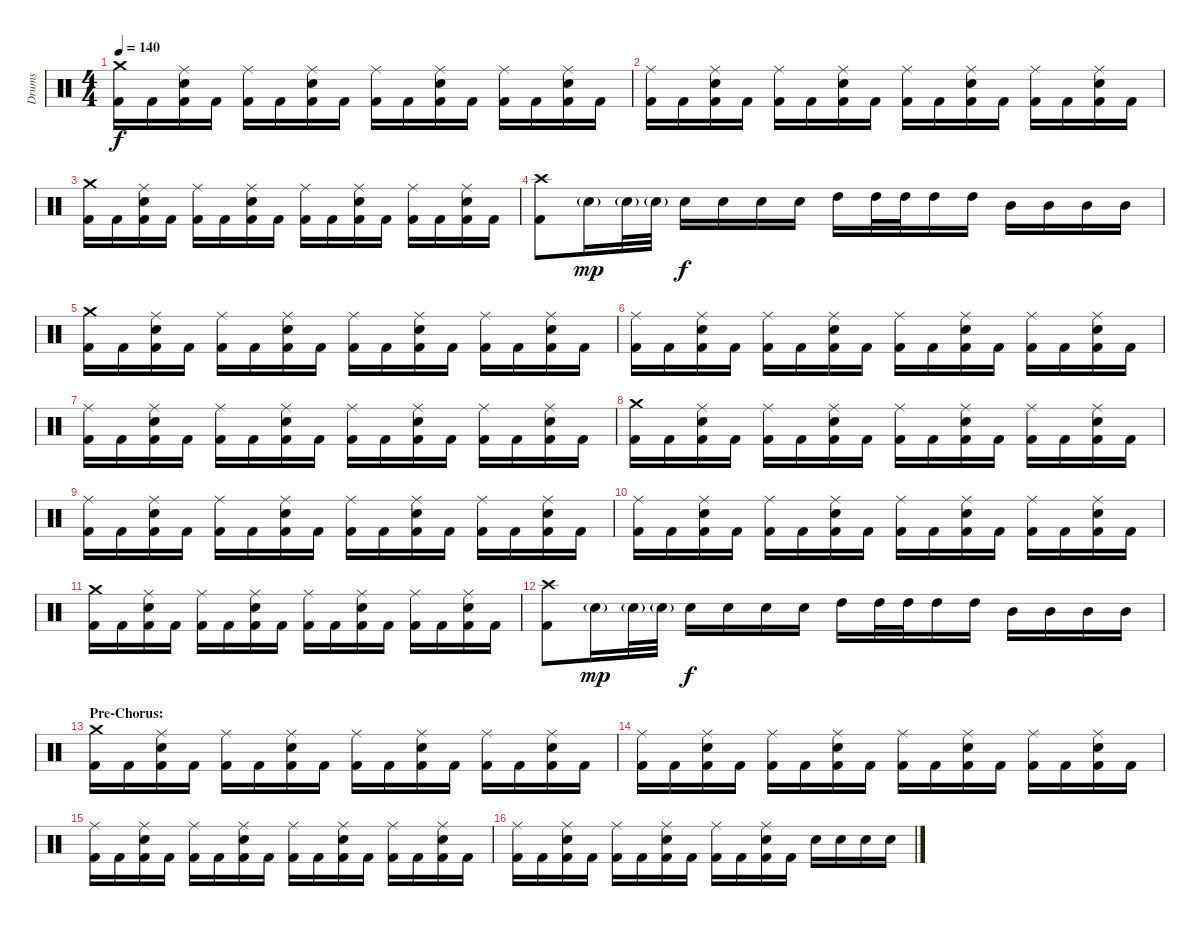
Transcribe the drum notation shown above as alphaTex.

\track ("Drums" "Drums") {instrument percussion}
\staff {score}
\articulation defaults
\ts (4 4)
\tempo 140
\clef neutral
\ks c
("Crash medium (hit)" "Kick (hit) 2").16{dy f} "Kick (hit) 2".16 ("Ride (middle)" "Snare (hit) 2" "Kick (hit) 2").16 "Kick (hit) 2".16 ("Ride (middle)" "Kick (hit) 2").16 "Kick (hit) 2".16 ("Ride (middle)" "Snare (hit) 2" "Kick (hit) 2").16 "Kick (hit) 2".16 ("Ride (middle)" "Kick (hit) 2").16 "Kick (hit) 2".16 ("Ride (middle)" "Snare (hit) 2" "Kick (hit) 2").16 "Kick (hit) 2".16 ("Ride (middle)" "Kick (hit) 2").16 "Kick (hit) 2".16 ("Ride (middle)" "Snare (hit) 2" "Kick (hit) 2").16 "Kick (hit) 2".16 |
("Ride (middle)" "Kick (hit) 2").16 "Kick (hit) 2".16 ("Ride (middle)" "Snare (hit) 2" "Kick (hit) 2").16 "Kick (hit) 2".16 ("Ride (middle)" "Kick (hit) 2").16 "Kick (hit) 2".16 ("Ride (middle)" "Snare (hit) 2" "Kick (hit) 2").16 "Kick (hit) 2".16 ("Ride (middle)" "Kick (hit) 2").16 "Kick (hit) 2".16 ("Ride (middle)" "Snare (hit) 2" "Kick (hit) 2").16 "Kick (hit) 2".16 ("Ride (middle)" "Kick (hit) 2").16 "Kick (hit) 2".16 ("Ride (middle)" "Snare (hit) 2" "Kick (hit) 2").16 "Kick (hit) 2".16 |
("Crash medium (hit)" "Kick (hit) 2").16 "Kick (hit) 2".16 ("Ride (middle)" "Snare (hit) 2" "Kick (hit) 2").16 "Kick (hit) 2".16 ("Ride (middle)" "Kick (hit) 2").16 "Kick (hit) 2".16 ("Ride (middle)" "Snare (hit) 2" "Kick (hit) 2").16 "Kick (hit) 2".16 ("Ride (middle)" "Kick (hit) 2").16 "Kick (hit) 2".16 ("Ride (middle)" "Snare (hit) 2" "Kick (hit) 2").16 "Kick (hit) 2".16 ("Ride (middle)" "Kick (hit) 2").16 "Kick (hit) 2".16 ("Ride (middle)" "Snare (hit) 2" "Kick (hit) 2").16 "Kick (hit) 2".16 |
("Crash high (hit)" "Kick (hit) 2").8 "Snare (hit) 2"{g}.16{dy mp} "Snare (hit) 2"{g}.32 "Snare (hit) 2"{g}.32 "Snare (hit) 2".16{dy f} "Snare (hit) 2".16 "Snare (hit) 2".16 "Snare (hit) 2".16 "High Tom (hit)".16 "High Tom (hit)".32 "High Tom (hit)".32 "High Tom (hit)".16 "High Tom (hit)".16 "Mid Tom (hit)".16 "Mid Tom (hit)".16 "Mid Tom (hit)".16 "Mid Tom (hit)".16 |
("Crash medium (hit)" "Kick (hit) 2").16 "Kick (hit) 2".16 ("Ride (middle)" "Snare (hit) 2" "Kick (hit) 2").16 "Kick (hit) 2".16 ("Ride (middle)" "Kick (hit) 2").16 "Kick (hit) 2".16 ("Ride (middle)" "Snare (hit) 2" "Kick (hit) 2").16 "Kick (hit) 2".16 ("Ride (middle)" "Kick (hit) 2").16 "Kick (hit) 2".16 ("Ride (middle)" "Snare (hit) 2" "Kick (hit) 2").16 "Kick (hit) 2".16 ("Ride (middle)" "Kick (hit) 2").16 "Kick (hit) 2".16 ("Ride (middle)" "Snare (hit) 2" "Kick (hit) 2").16 "Kick (hit) 2".16 |
("Ride (middle)" "Kick (hit) 2").16 "Kick (hit) 2".16 ("Ride (middle)" "Snare (hit) 2" "Kick (hit) 2").16 "Kick (hit) 2".16 ("Ride (middle)" "Kick (hit) 2").16 "Kick (hit) 2".16 ("Ride (middle)" "Snare (hit) 2" "Kick (hit) 2").16 "Kick (hit) 2".16 ("Ride (middle)" "Kick (hit) 2").16 "Kick (hit) 2".16 ("Ride (middle)" "Snare (hit) 2" "Kick (hit) 2").16 "Kick (hit) 2".16 ("Ride (middle)" "Kick (hit) 2").16 "Kick (hit) 2".16 ("Ride (middle)" "Snare (hit) 2" "Kick (hit) 2").16 "Kick (hit) 2".16 |
("Ride (middle)" "Kick (hit) 2").16 "Kick (hit) 2".16 ("Ride (middle)" "Snare (hit) 2" "Kick (hit) 2").16 "Kick (hit) 2".16 ("Ride (middle)" "Kick (hit) 2").16 "Kick (hit) 2".16 ("Ride (middle)" "Snare (hit) 2" "Kick (hit) 2").16 "Kick (hit) 2".16 ("Ride (middle)" "Kick (hit) 2").16 "Kick (hit) 2".16 ("Ride (middle)" "Snare (hit) 2" "Kick (hit) 2").16 "Kick (hit) 2".16 ("Ride (middle)" "Kick (hit) 2").16 "Kick (hit) 2".16 ("Ride (middle)" "Snare (hit) 2" "Kick (hit) 2").16 "Kick (hit) 2".16 |
("Crash medium (hit)" "Kick (hit) 2").16 "Kick (hit) 2".16 ("Ride (middle)" "Snare (hit) 2" "Kick (hit) 2").16 "Kick (hit) 2".16 ("Ride (middle)" "Kick (hit) 2").16 "Kick (hit) 2".16 ("Ride (middle)" "Snare (hit) 2" "Kick (hit) 2").16 "Kick (hit) 2".16 ("Ride (middle)" "Kick (hit) 2").16 "Kick (hit) 2".16 ("Ride (middle)" "Snare (hit) 2" "Kick (hit) 2").16 "Kick (hit) 2".16 ("Ride (middle)" "Kick (hit) 2").16 "Kick (hit) 2".16 ("Ride (middle)" "Snare (hit) 2" "Kick (hit) 2").16 "Kick (hit) 2".16 |
("Ride (middle)" "Kick (hit) 2").16 "Kick (hit) 2".16 ("Ride (middle)" "Snare (hit) 2" "Kick (hit) 2").16 "Kick (hit) 2".16 ("Ride (middle)" "Kick (hit) 2").16 "Kick (hit) 2".16 ("Ride (middle)" "Snare (hit) 2" "Kick (hit) 2").16 "Kick (hit) 2".16 ("Ride (middle)" "Kick (hit) 2").16 "Kick (hit) 2".16 ("Ride (middle)" "Snare (hit) 2" "Kick (hit) 2").16 "Kick (hit) 2".16 ("Ride (middle)" "Kick (hit) 2").16 "Kick (hit) 2".16 ("Ride (middle)" "Snare (hit) 2" "Kick (hit) 2").16 "Kick (hit) 2".16 |
("Ride (middle)" "Kick (hit) 2").16 "Kick (hit) 2".16 ("Ride (middle)" "Snare (hit) 2" "Kick (hit) 2").16 "Kick (hit) 2".16 ("Ride (middle)" "Kick (hit) 2").16 "Kick (hit) 2".16 ("Ride (middle)" "Snare (hit) 2" "Kick (hit) 2").16 "Kick (hit) 2".16 ("Ride (middle)" "Kick (hit) 2").16 "Kick (hit) 2".16 ("Ride (middle)" "Snare (hit) 2" "Kick (hit) 2").16 "Kick (hit) 2".16 ("Ride (middle)" "Kick (hit) 2").16 "Kick (hit) 2".16 ("Ride (middle)" "Snare (hit) 2" "Kick (hit) 2").16 "Kick (hit) 2".16 |
("Crash medium (hit)" "Kick (hit) 2").16 "Kick (hit) 2".16 ("Ride (middle)" "Snare (hit) 2" "Kick (hit) 2").16 "Kick (hit) 2".16 ("Ride (middle)" "Kick (hit) 2").16 "Kick (hit) 2".16 ("Ride (middle)" "Snare (hit) 2" "Kick (hit) 2").16 "Kick (hit) 2".16 ("Ride (middle)" "Kick (hit) 2").16 "Kick (hit) 2".16 ("Ride (middle)" "Snare (hit) 2" "Kick (hit) 2").16 "Kick (hit) 2".16 ("Ride (middle)" "Kick (hit) 2").16 "Kick (hit) 2".16 ("Ride (middle)" "Snare (hit) 2" "Kick (hit) 2").16 "Kick (hit) 2".16 |
("Crash high (hit)" "Kick (hit) 2").8 "Snare (hit) 2"{g}.16{dy mp} "Snare (hit) 2"{g}.32 "Snare (hit) 2"{g}.32 "Snare (hit) 2".16{dy f} "Snare (hit) 2".16 "Snare (hit) 2".16 "Snare (hit) 2".16 "High Tom (hit)".16 "High Tom (hit)".32 "High Tom (hit)".32 "High Tom (hit)".16 "High Tom (hit)".16 "Mid Tom (hit)".16 "Mid Tom (hit)".16 "Mid Tom (hit)".16 "Mid Tom (hit)".16 |
\section ("" "Pre-Chorus:")
("Crash medium (hit)" "Kick (hit) 2").16 "Kick (hit) 2".16 ("Ride (middle)" "Snare (hit) 2" "Kick (hit) 2").16 "Kick (hit) 2".16 ("Ride (middle)" "Kick (hit) 2").16 "Kick (hit) 2".16 ("Ride (middle)" "Snare (hit) 2" "Kick (hit) 2").16 "Kick (hit) 2".16 ("Ride (middle)" "Kick (hit) 2").16 "Kick (hit) 2".16 ("Ride (middle)" "Snare (hit) 2" "Kick (hit) 2").16 "Kick (hit) 2".16 ("Ride (middle)" "Kick (hit) 2").16 "Kick (hit) 2".16 ("Ride (middle)" "Snare (hit) 2" "Kick (hit) 2").16 "Kick (hit) 2".16 |
("Ride (middle)" "Kick (hit) 2").16 "Kick (hit) 2".16 ("Ride (middle)" "Snare (hit) 2" "Kick (hit) 2").16 "Kick (hit) 2".16 ("Ride (middle)" "Kick (hit) 2").16 "Kick (hit) 2".16 ("Ride (middle)" "Snare (hit) 2" "Kick (hit) 2").16 "Kick (hit) 2".16 ("Ride (middle)" "Kick (hit) 2").16 "Kick (hit) 2".16 ("Ride (middle)" "Snare (hit) 2" "Kick (hit) 2").16 "Kick (hit) 2".16 ("Ride (middle)" "Kick (hit) 2").16 "Kick (hit) 2".16 ("Ride (middle)" "Snare (hit) 2" "Kick (hit) 2").16 "Kick (hit) 2".16 |
("Ride (middle)" "Kick (hit) 2").16 "Kick (hit) 2".16 ("Ride (middle)" "Snare (hit) 2" "Kick (hit) 2").16 "Kick (hit) 2".16 ("Ride (middle)" "Kick (hit) 2").16 "Kick (hit) 2".16 ("Ride (middle)" "Snare (hit) 2" "Kick (hit) 2").16 "Kick (hit) 2".16 ("Ride (middle)" "Kick (hit) 2").16 "Kick (hit) 2".16 ("Ride (middle)" "Snare (hit) 2" "Kick (hit) 2").16 "Kick (hit) 2".16 ("Ride (middle)" "Kick (hit) 2").16 "Kick (hit) 2".16 ("Ride (middle)" "Snare (hit) 2" "Kick (hit) 2").16 "Kick (hit) 2".16 |
("Ride (middle)" "Kick (hit) 2").16 "Kick (hit) 2".16 ("Ride (middle)" "Snare (hit) 2" "Kick (hit) 2").16 "Kick (hit) 2".16 ("Ride (middle)" "Kick (hit) 2").16 "Kick (hit) 2".16 ("Ride (middle)" "Snare (hit) 2" "Kick (hit) 2").16 "Kick (hit) 2".16 ("Ride (middle)" "Kick (hit) 2").16 "Kick (hit) 2".16 ("Ride (middle)" "Snare (hit) 2" "Kick (hit) 2").16 "Kick (hit) 2".16 "Snare (hit) 2".16 "Snare (hit) 2".16 "Snare (hit) 2".16 "Snare (hit) 2".16
